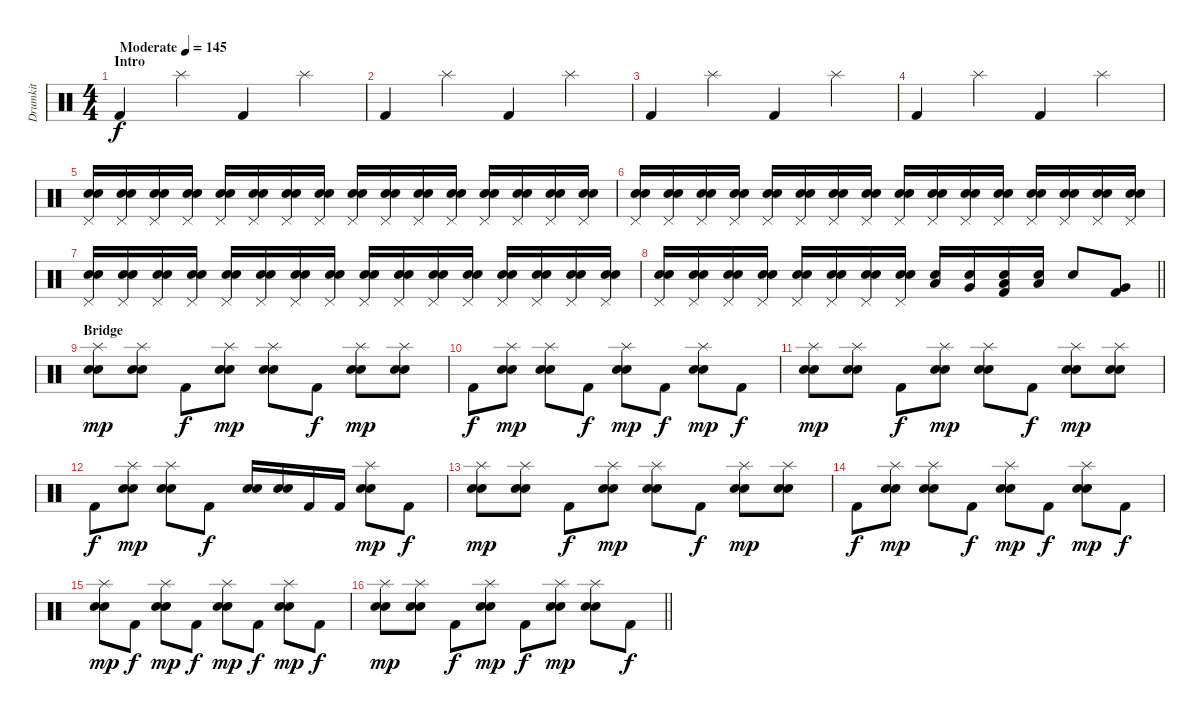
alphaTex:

\track ("Drumkit" "Drumkit") {instrument percussion}
\staff {score}
\articulation defaults
\ts (4 4)
\section ("" "Intro")
\tempo (145 "Moderate")
\clef neutral
\ks c "Kick (hit) 2".4{dy f} "Splash (hit)".4 "Kick (hit) 2".4 "Splash (hit)".4
|
"Kick (hit) 2".4 "Splash (hit)".4 "Kick (hit) 2".4 "Splash (hit)".4 |
"Kick (hit) 2".4 "Splash (hit)".4 "Kick (hit) 2".4 "Splash (hit)".4 |
"Kick (hit) 2".4 "Splash (hit)".4 "Kick (hit) 2".4 "Splash (hit)".4 |
("Pedal Hi-Hat (hit)" "Electric Snare (hit)" "Snare (hit) 2").16{volume 2} ("Pedal Hi-Hat (hit)" "Electric Snare (hit)" "Snare (hit) 2").16{volume 12} ("Pedal Hi-Hat (hit)" "Electric Snare (hit)" "Snare (hit) 2").16 ("Pedal Hi-Hat (hit)" "Electric Snare (hit)" "Snare (hit) 2").16 ("Pedal Hi-Hat (hit)" "Electric Snare (hit)" "Snare (hit) 2").16 ("Pedal Hi-Hat (hit)" "Electric Snare (hit)" "Snare (hit) 2").16 ("Pedal Hi-Hat (hit)" "Electric Snare (hit)" "Snare (hit) 2").16 ("Pedal Hi-Hat (hit)" "Electric Snare (hit)" "Snare (hit) 2").16 ("Pedal Hi-Hat (hit)" "Electric Snare (hit)" "Snare (hit) 2").16 ("Pedal Hi-Hat (hit)" "Electric Snare (hit)" "Snare (hit) 2").16 ("Pedal Hi-Hat (hit)" "Electric Snare (hit)" "Snare (hit) 2").16 ("Pedal Hi-Hat (hit)" "Electric Snare (hit)" "Snare (hit) 2").16 ("Pedal Hi-Hat (hit)" "Electric Snare (hit)" "Snare (hit) 2").16 ("Pedal Hi-Hat (hit)" "Electric Snare (hit)" "Snare (hit) 2").16 ("Pedal Hi-Hat (hit)" "Electric Snare (hit)" "Snare (hit) 2").16 ("Pedal Hi-Hat (hit)" "Electric Snare (hit)" "Snare (hit) 2").16 |
("Pedal Hi-Hat (hit)" "Electric Snare (hit)" "Snare (hit) 2").16 ("Pedal Hi-Hat (hit)" "Electric Snare (hit)" "Snare (hit) 2").16 ("Pedal Hi-Hat (hit)" "Electric Snare (hit)" "Snare (hit) 2").16 ("Pedal Hi-Hat (hit)" "Electric Snare (hit)" "Snare (hit) 2").16 ("Pedal Hi-Hat (hit)" "Electric Snare (hit)" "Snare (hit) 2").16 ("Pedal Hi-Hat (hit)" "Electric Snare (hit)" "Snare (hit) 2").16 ("Pedal Hi-Hat (hit)" "Electric Snare (hit)" "Snare (hit) 2").16 ("Pedal Hi-Hat (hit)" "Electric Snare (hit)" "Snare (hit) 2").16 ("Pedal Hi-Hat (hit)" "Electric Snare (hit)" "Snare (hit) 2").16 ("Pedal Hi-Hat (hit)" "Electric Snare (hit)" "Snare (hit) 2").16 ("Pedal Hi-Hat (hit)" "Electric Snare (hit)" "Snare (hit) 2").16 ("Pedal Hi-Hat (hit)" "Electric Snare (hit)" "Snare (hit) 2").16 ("Pedal Hi-Hat (hit)" "Electric Snare (hit)" "Snare (hit) 2").16 ("Pedal Hi-Hat (hit)" "Electric Snare (hit)" "Snare (hit) 2").16 ("Pedal Hi-Hat (hit)" "Electric Snare (hit)" "Snare (hit) 2").16 ("Pedal Hi-Hat (hit)" "Electric Snare (hit)" "Snare (hit) 2").16 |
("Pedal Hi-Hat (hit)" "Electric Snare (hit)" "Snare (hit) 2").16 ("Pedal Hi-Hat (hit)" "Electric Snare (hit)" "Snare (hit) 2").16 ("Pedal Hi-Hat (hit)" "Electric Snare (hit)" "Snare (hit) 2").16 ("Pedal Hi-Hat (hit)" "Electric Snare (hit)" "Snare (hit) 2").16 ("Pedal Hi-Hat (hit)" "Electric Snare (hit)" "Snare (hit) 2").16 ("Pedal Hi-Hat (hit)" "Electric Snare (hit)" "Snare (hit) 2").16 ("Pedal Hi-Hat (hit)" "Electric Snare (hit)" "Snare (hit) 2").16 ("Pedal Hi-Hat (hit)" "Electric Snare (hit)" "Snare (hit) 2").16 ("Pedal Hi-Hat (hit)" "Electric Snare (hit)" "Snare (hit) 2").16 ("Pedal Hi-Hat (hit)" "Electric Snare (hit)" "Snare (hit) 2").16 ("Pedal Hi-Hat (hit)" "Electric Snare (hit)" "Snare (hit) 2").16 ("Pedal Hi-Hat (hit)" "Electric Snare (hit)" "Snare (hit) 2").16 ("Pedal Hi-Hat (hit)" "Electric Snare (hit)" "Snare (hit) 2").16 ("Pedal Hi-Hat (hit)" "Electric Snare (hit)" "Snare (hit) 2").16 ("Pedal Hi-Hat (hit)" "Electric Snare (hit)" "Snare (hit) 2").16 ("Pedal Hi-Hat (hit)" "Electric Snare (hit)" "Snare (hit) 2").16 |
\barLineRight lightlight
("Pedal Hi-Hat (hit)" "Electric Snare (hit)" "Snare (hit) 2").16 ("Pedal Hi-Hat (hit)" "Electric Snare (hit)" "Snare (hit) 2").16 ("Pedal Hi-Hat (hit)" "Electric Snare (hit)" "Snare (hit) 2").16 ("Pedal Hi-Hat (hit)" "Electric Snare (hit)" "Snare (hit) 2").16 ("Pedal Hi-Hat (hit)" "Electric Snare (hit)" "Snare (hit) 2").16 ("Pedal Hi-Hat (hit)" "Electric Snare (hit)" "Snare (hit) 2").16 ("Pedal Hi-Hat (hit)" "Electric Snare (hit)" "Snare (hit) 2").16 ("Pedal Hi-Hat (hit)" "Electric Snare (hit)" "Snare (hit) 2").16 ("Low Tom (hit)" "Snare (hit) 2").16 ("Very Low Tom (hit)" "Snare (hit) 2").16 ("Low Tom (hit)" "Snare (hit) 2" "Kick (hit) 2").16 ("Low Floor Tom (hit)" "Snare (hit) 2").16 "Electric Snare (hit)".8 ("Very Low Tom (hit)" "Kick (hit) 2").8 |
\section ("" "Bridge")
("Splash (hit)" "Electric Snare (hit)" "Snare (hit) 2").8{dy mp} ("Splash (hit)" "Electric Snare (hit)" "Snare (hit) 2").8 "Kick (hit) 2".8{dy f} ("Splash (hit)" "Electric Snare (hit)" "Snare (hit) 2").8{dy mp} ("Splash (hit)" "Electric Snare (hit)" "Snare (hit) 2").8 "Kick (hit) 2".8{dy f} ("Splash (hit)" "Electric Snare (hit)" "Snare (hit) 2").8{dy mp} ("Splash (hit)" "Electric Snare (hit)" "Snare (hit) 2").8 |
"Kick (hit) 2".8{dy f} ("Splash (hit)" "Electric Snare (hit)" "Snare (hit) 2").8{dy mp} ("Splash (hit)" "Electric Snare (hit)" "Snare (hit) 2").8 "Kick (hit) 2".8{dy f} ("Splash (hit)" "Electric Snare (hit)" "Snare (hit) 2").8{dy mp} "Kick (hit) 2".8{dy f} ("Splash (hit)" "Electric Snare (hit)" "Snare (hit) 2").8{dy mp} "Kick (hit) 2".8{dy f} |
("Splash (hit)" "Electric Snare (hit)" "Snare (hit) 2").8{dy mp} ("Splash (hit)" "Electric Snare (hit)" "Snare (hit) 2").8 "Kick (hit) 2".8{dy f} ("Splash (hit)" "Electric Snare (hit)" "Snare (hit) 2").8{dy mp} ("Splash (hit)" "Electric Snare (hit)" "Snare (hit) 2").8 "Kick (hit) 2".8{dy f} ("Splash (hit)" "Electric Snare (hit)" "Snare (hit) 2").8{dy mp} ("Splash (hit)" "Electric Snare (hit)" "Snare (hit) 2").8 |
"Kick (hit) 2".8{dy f} ("Splash (hit)" "Electric Snare (hit)" "Snare (hit) 2").8{dy mp} ("Splash (hit)" "Electric Snare (hit)" "Snare (hit) 2").8 "Kick (hit) 2".8{dy f} ("Electric Snare (hit)" "Snare (hit) 2").16 ("Electric Snare (hit)" "Snare (hit) 2").16 "Kick (hit) 2".16 "Kick (hit) 2".16 ("Splash (hit)" "Electric Snare (hit)" "Snare (hit) 2").8{dy mp} "Kick (hit) 2".8{dy f} |
("Splash (hit)" "Electric Snare (hit)" "Snare (hit) 2").8{dy mp} ("Splash (hit)" "Electric Snare (hit)" "Snare (hit) 2").8 "Kick (hit) 2".8{dy f} ("Splash (hit)" "Electric Snare (hit)" "Snare (hit) 2").8{dy mp} ("Splash (hit)" "Electric Snare (hit)" "Snare (hit) 2").8 "Kick (hit) 2".8{dy f} ("Splash (hit)" "Electric Snare (hit)" "Snare (hit) 2").8{dy mp} ("Splash (hit)" "Electric Snare (hit)" "Snare (hit) 2").8 |
"Kick (hit) 2".8{dy f} ("Splash (hit)" "Electric Snare (hit)" "Snare (hit) 2").8{dy mp} ("Splash (hit)" "Electric Snare (hit)" "Snare (hit) 2").8 "Kick (hit) 2".8{dy f} ("Splash (hit)" "Electric Snare (hit)" "Snare (hit) 2").8{dy mp} "Kick (hit) 2".8{dy f} ("Splash (hit)" "Electric Snare (hit)" "Snare (hit) 2").8{dy mp} "Kick (hit) 2".8{dy f} |
("Splash (hit)" "Electric Snare (hit)" "Snare (hit) 2").8{dy mp} "Kick (hit) 2".8{dy f} ("Splash (hit)" "Electric Snare (hit)" "Snare (hit) 2").8{dy mp} "Kick (hit) 2".8{dy f} ("Splash (hit)" "Electric Snare (hit)" "Snare (hit) 2").8{dy mp} "Kick (hit) 2".8{dy f} ("Splash (hit)" "Electric Snare (hit)" "Snare (hit) 2").8{dy mp} "Kick (hit) 2".8{dy f} |
\barLineRight lightlight
("Splash (hit)" "Electric Snare (hit)" "Snare (hit) 2").8{dy mp} ("Splash (hit)" "Electric Snare (hit)" "Snare (hit) 2").8 "Kick (hit) 2".8{dy f} ("Splash (hit)" "Electric Snare (hit)" "Snare (hit) 2").8{dy mp} "Kick (hit) 2".8{dy f} ("Splash (hit)" "Electric Snare (hit)" "Snare (hit) 2").8{dy mp} ("Splash (hit)" "Electric Snare (hit)" "Snare (hit) 2").8 "Kick (hit) 2".8{dy f}
